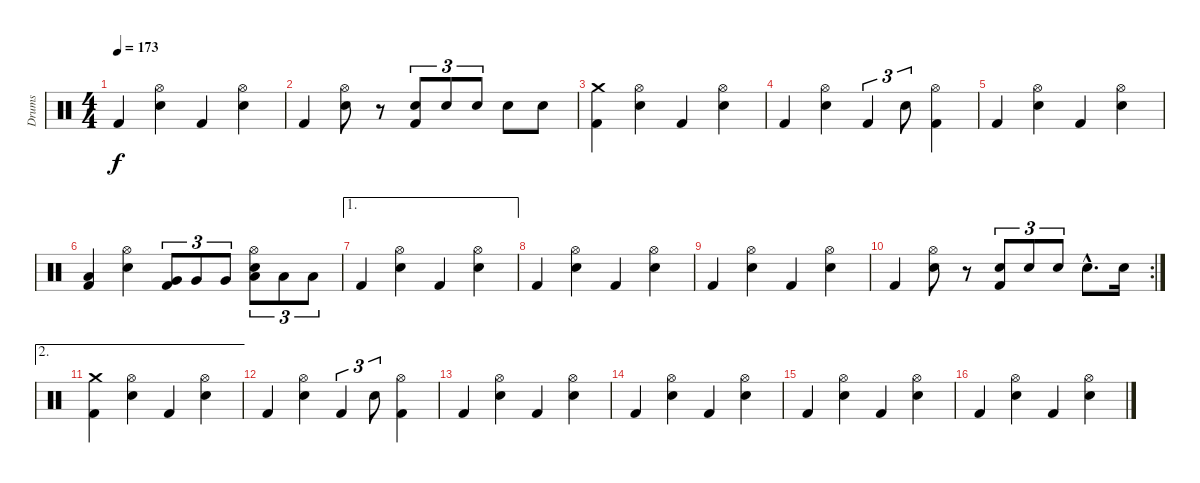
\track ("Drums" "Drums") {instrument percussion}
\staff {score}
\articulation defaults
\ts (4 4)
\tempo 173
\clef neutral
\ks c "Kick (hit) 2".4{dy f}
("Electric Snare (hit)" "Hi-Hat (open)").4 "Kick (hit) 2".4 ("Electric Snare (hit)" "Hi-Hat (open)").4 |
"Kick (hit) 2".4 ("Hi-Hat (open)" "Electric Snare (hit)").8 r.8 ("Electric Snare (hit)" "Kick (hit) 2").8{tu (3 2)} "Electric Snare (hit)".8{tu (3 2)} "Electric Snare (hit)".8{tu (3 2)} "Electric Snare (hit)".8 "Electric Snare (hit)".8 |
("Kick (hit) 2" "Crash medium (hit)").4 ("Electric Snare (hit)" "Hi-Hat (open)").4 "Kick (hit) 2".4 ("Electric Snare (hit)" "Hi-Hat (open)").4 |
"Kick (hit) 2".4 ("Hi-Hat (open)" "Electric Snare (hit)").4 "Kick (hit) 2".4{tu (3 2)} "Electric Snare (hit)".8{tu (3 2)} ("Hi-Hat (open)" "Kick (hit) 2").4 |
"Kick (hit) 2".4 ("Electric Snare (hit)" "Hi-Hat (open)").4 "Kick (hit) 2".4 ("Electric Snare (hit)" "Hi-Hat (open)").4 |
("Kick (hit) 2" "Low Floor Tom (hit)").4 ("Electric Snare (hit)" "Hi-Hat (open)").4 ("Kick (hit) 2" "Very Low Tom (hit)").8{tu (3 2)} "Very Low Tom (hit)".8{tu (3 2)} "Very Low Tom (hit)".8{tu (3 2)} ("Low Floor Tom (hit)" "Electric Snare (hit)" "Hi-Hat (open)").8{tu (3 2)} "Low Floor Tom (hit)".8{tu (3 2)} "Low Floor Tom (hit)".8{tu (3 2)} |
\ae 1 "Kick (hit) 2".4
("Electric Snare (hit)" "Hi-Hat (open)").4 "Kick (hit) 2".4 ("Electric Snare (hit)" "Hi-Hat (open)").4 |
"Kick (hit) 2".4 ("Electric Snare (hit)" "Hi-Hat (open)").4 "Kick (hit) 2".4 ("Electric Snare (hit)" "Hi-Hat (open)").4 |
"Kick (hit) 2".4 ("Electric Snare (hit)" "Hi-Hat (open)").4 "Kick (hit) 2".4 ("Electric Snare (hit)" "Hi-Hat (open)").4 |
\rc 2 "Kick (hit) 2".4
("Hi-Hat (open)" "Electric Snare (hit)").8 r.8 ("Electric Snare (hit)" "Kick (hit) 2").8{tu (3 2)} "Electric Snare (hit)".8{tu (3 2)} "Electric Snare (hit)".8{tu (3 2)} "Electric Snare (hit)"{hac}.8{d} "Electric Snare (hit)".16 |
\ae 2
("Kick (hit) 2" "Crash medium (hit)").4 ("Electric Snare (hit)" "Hi-Hat (open)").4 "Kick (hit) 2".4 ("Electric Snare (hit)" "Hi-Hat (open)").4 |
"Kick (hit) 2".4 ("Hi-Hat (open)" "Electric Snare (hit)").4 "Kick (hit) 2".4{tu (3 2)} "Electric Snare (hit)".8{tu (3 2)} ("Hi-Hat (open)" "Kick (hit) 2").4 |
"Kick (hit) 2".4 ("Electric Snare (hit)" "Hi-Hat (open)").4 "Kick (hit) 2".4 ("Electric Snare (hit)" "Hi-Hat (open)").4 |
"Kick (hit) 2".4 ("Electric Snare (hit)" "Hi-Hat (open)").4 "Kick (hit) 2".4 ("Electric Snare (hit)" "Hi-Hat (open)").4 |
"Kick (hit) 2".4 ("Electric Snare (hit)" "Hi-Hat (open)").4 "Kick (hit) 2".4 ("Electric Snare (hit)" "Hi-Hat (open)").4 |
"Kick (hit) 2".4 ("Electric Snare (hit)" "Hi-Hat (open)").4 "Kick (hit) 2".4 ("Electric Snare (hit)" "Hi-Hat (open)").4
